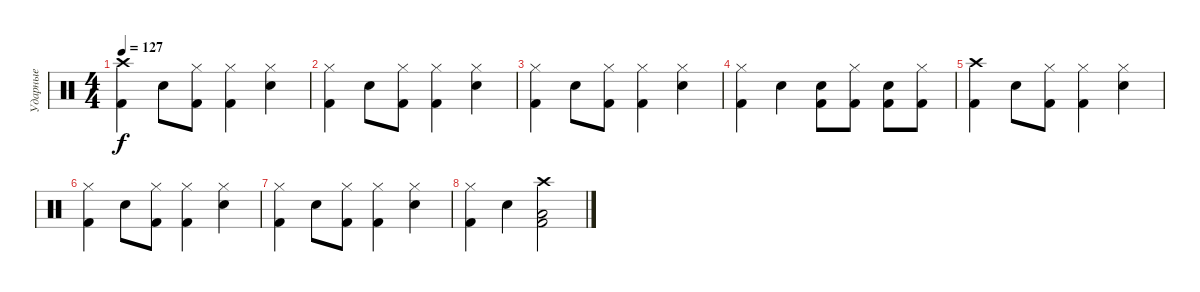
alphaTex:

\track ("Ударные" "Ударные") {instrument percussion}
\staff {score}
\articulation defaults
\ts (4 4)
\tempo 127
\clef neutral
\ks c
("Crash high (hit)" "Kick (hit) 2").4{dy f} "Electric Snare (hit)".8 ("Hi-Hat (closed)" "Kick (hit) 2").8 ("Hi-Hat (closed)" "Kick (hit) 2").4 ("Hi-Hat (closed)" "Electric Snare (hit)").4 |
("Hi-Hat (closed)" "Kick (hit) 2").4 "Electric Snare (hit)".8 ("Hi-Hat (closed)" "Kick (hit) 2").8 ("Hi-Hat (closed)" "Kick (hit) 2").4 ("Hi-Hat (closed)" "Electric Snare (hit)").4 |
("Hi-Hat (closed)" "Kick (hit) 2").4 "Electric Snare (hit)".8 ("Hi-Hat (closed)" "Kick (hit) 2").8 ("Hi-Hat (closed)" "Kick (hit) 2").4 ("Hi-Hat (closed)" "Electric Snare (hit)").4 |
("Hi-Hat (closed)" "Kick (hit) 2").4 "Electric Snare (hit)".4 ("Kick (hit) 2" "Electric Snare (hit)").8 ("Hi-Hat (closed)" "Kick (hit) 2").8 ("Kick (hit) 2" "Electric Snare (hit)").8 ("Hi-Hat (closed)" "Kick (hit) 2").8 |
("Crash high (hit)" "Kick (hit) 2").4 "Electric Snare (hit)".8 ("Hi-Hat (closed)" "Kick (hit) 2").8 ("Hi-Hat (closed)" "Kick (hit) 2").4 ("Hi-Hat (closed)" "Electric Snare (hit)").4 |
("Hi-Hat (closed)" "Kick (hit) 2").4 "Electric Snare (hit)".8 ("Hi-Hat (closed)" "Kick (hit) 2").8 ("Hi-Hat (closed)" "Kick (hit) 2").4 ("Hi-Hat (closed)" "Electric Snare (hit)").4 |
("Hi-Hat (closed)" "Kick (hit) 2").4 "Electric Snare (hit)".8 ("Hi-Hat (closed)" "Kick (hit) 2").8 ("Hi-Hat (closed)" "Kick (hit) 2").4 ("Hi-Hat (closed)" "Electric Snare (hit)").4 |
("Hi-Hat (closed)" "Kick (hit) 2").4 "Electric Snare (hit)".4 ("Low Floor Tom (hit)" "Crash high (hit)" "Kick (hit) 2").2
